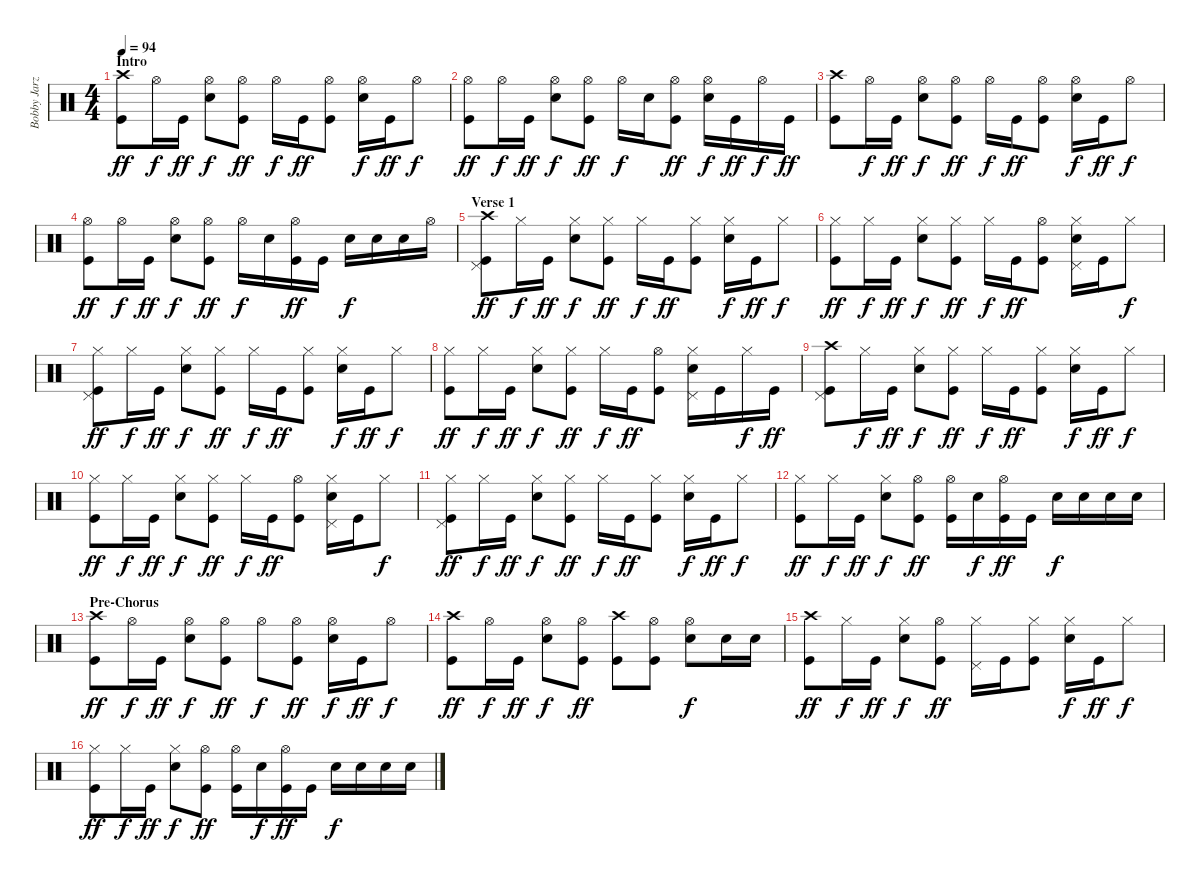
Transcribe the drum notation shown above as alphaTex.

\track ("Bobby Jarzombek" "Bobby Jarz") {instrument percussion}
\staff {score}
\articulation defaults
\ts (4 4)
\section ("" "Intro")
\tempo 94
\clef neutral
\ks c
("Crash high (hit)" "Kick (hit)").8{dy ff} "Hi-Hat (open)".16{dy f} "Kick (hit)".16{dy ff} ("Hi-Hat (open)" "Electric Snare (hit)").8{dy f} ("Hi-Hat (open)" "Kick (hit)").8{dy ff} "Hi-Hat (open)".16{dy f} "Kick (hit)".16{dy ff} ("Hi-Hat (open)" "Kick (hit)").8 ("Hi-Hat (open)" "Electric Snare (hit)").16{dy f} "Kick (hit)".16{dy ff} "Hi-Hat (open)".8{dy f} |
("Hi-Hat (open)" "Kick (hit)").8{dy ff} "Hi-Hat (open)".16{dy f} "Kick (hit)".16{dy ff} ("Hi-Hat (open)" "Electric Snare (hit)").8{dy f} ("Hi-Hat (open)" "Kick (hit)").8{dy ff} "Hi-Hat (open)".16{dy f} "Electric Snare (hit)".16 ("Hi-Hat (open)" "Kick (hit)").8{dy ff} ("Hi-Hat (open)" "Electric Snare (hit)").16{dy f} "Kick (hit)".16{dy ff} "Hi-Hat (open)".16{dy f} "Kick (hit)".16{dy ff} |
("Crash high (hit)" "Kick (hit)").8 "Hi-Hat (open)".16{dy f} "Kick (hit)".16{dy ff} ("Hi-Hat (open)" "Electric Snare (hit)").8{dy f} ("Hi-Hat (open)" "Kick (hit)").8{dy ff} "Hi-Hat (open)".16{dy f} "Kick (hit)".16{dy ff} ("Hi-Hat (open)" "Kick (hit)").8 ("Hi-Hat (open)" "Electric Snare (hit)").16{dy f} "Kick (hit)".16{dy ff} "Hi-Hat (open)".8{dy f} |
("Hi-Hat (open)" "Kick (hit)").8{dy ff} "Hi-Hat (open)".16{dy f} "Kick (hit)".16{dy ff} ("Hi-Hat (open)" "Electric Snare (hit)").8{dy f} ("Hi-Hat (open)" "Kick (hit)").8{dy ff} "Hi-Hat (open)".16{dy f} "Electric Snare (hit)".16 ("Hi-Hat (open)" "Kick (hit)").16{dy ff} "Kick (hit)".16 "Electric Snare (hit)".16{dy f} "Electric Snare (hit)".16 "Electric Snare (hit)".16 "Hi-Hat (open)".16 |
\section ("" "Verse 1")
("Crash high (hit)" "Pedal Hi-Hat (hit)" "Kick (hit)").8{dy ff} "Hi-Hat (closed)".16{dy f} "Kick (hit)".16{dy ff} ("Hi-Hat (closed)" "Electric Snare (hit)").8{dy f} ("Hi-Hat (closed)" "Kick (hit)").8{dy ff} "Hi-Hat (closed)".16{dy f} "Kick (hit)".16{dy ff} ("Hi-Hat (closed)" "Kick (hit)").8 ("Hi-Hat (closed)" "Electric Snare (hit)").16{dy f} "Kick (hit)".16{dy ff} "Hi-Hat (closed)".8{dy f} |
("Hi-Hat (closed)" "Kick (hit)").8{dy ff} "Hi-Hat (closed)".16{dy f} "Kick (hit)".16{dy ff} ("Hi-Hat (closed)" "Electric Snare (hit)").8{dy f} ("Hi-Hat (closed)" "Kick (hit)").8{dy ff} "Hi-Hat (closed)".16{dy f} "Kick (hit)".16{dy ff} ("Hi-Hat (open)" "Kick (hit)").8 ("Hi-Hat (closed)" "Electric Snare (hit)" "Pedal Hi-Hat (hit)").16 "Kick (hit)".16 "Hi-Hat (closed)".8{dy f} |
("Hi-Hat (closed)" "Pedal Hi-Hat (hit)" "Kick (hit)").8{dy ff} "Hi-Hat (closed)".16{dy f} "Kick (hit)".16{dy ff} ("Hi-Hat (closed)" "Electric Snare (hit)").8{dy f} ("Hi-Hat (closed)" "Kick (hit)").8{dy ff} "Hi-Hat (closed)".16{dy f} "Kick (hit)".16{dy ff} ("Hi-Hat (closed)" "Kick (hit)").8 ("Hi-Hat (closed)" "Electric Snare (hit)").16{dy f} "Kick (hit)".16{dy ff} "Hi-Hat (closed)".8{dy f} |
("Hi-Hat (closed)" "Kick (hit)").8{dy ff} "Hi-Hat (closed)".16{dy f} "Kick (hit)".16{dy ff} ("Hi-Hat (closed)" "Electric Snare (hit)").8{dy f} ("Hi-Hat (closed)" "Kick (hit)").8{dy ff} "Hi-Hat (closed)".16{dy f} "Kick (hit)".16{dy ff} ("Hi-Hat (open)" "Kick (hit)").8 ("Hi-Hat (closed)" "Electric Snare (hit)" "Pedal Hi-Hat (hit)").16 "Kick (hit)".16 "Hi-Hat (closed)".16{dy f} "Kick (hit)".16{dy ff} |
("Crash high (hit)" "Pedal Hi-Hat (hit)" "Kick (hit)").8 "Hi-Hat (closed)".16{dy f} "Kick (hit)".16{dy ff} ("Hi-Hat (closed)" "Electric Snare (hit)").8{dy f} ("Hi-Hat (closed)" "Kick (hit)").8{dy ff} "Hi-Hat (closed)".16{dy f} "Kick (hit)".16{dy ff} ("Hi-Hat (closed)" "Kick (hit)").8 ("Hi-Hat (closed)" "Electric Snare (hit)").16{dy f} "Kick (hit)".16{dy ff} "Hi-Hat (closed)".8{dy f} |
("Hi-Hat (closed)" "Kick (hit)").8{dy ff} "Hi-Hat (closed)".16{dy f} "Kick (hit)".16{dy ff} ("Hi-Hat (closed)" "Electric Snare (hit)").8{dy f} ("Hi-Hat (closed)" "Kick (hit)").8{dy ff} "Hi-Hat (closed)".16{dy f} "Kick (hit)".16{dy ff} ("Hi-Hat (open)" "Kick (hit)").8 ("Hi-Hat (closed)" "Electric Snare (hit)" "Pedal Hi-Hat (hit)").16 "Kick (hit)".16 "Hi-Hat (closed)".8{dy f} |
("Hi-Hat (closed)" "Pedal Hi-Hat (hit)" "Kick (hit)").8{dy ff} "Hi-Hat (closed)".16{dy f} "Kick (hit)".16{dy ff} ("Hi-Hat (closed)" "Electric Snare (hit)").8{dy f} ("Hi-Hat (closed)" "Kick (hit)").8{dy ff} "Hi-Hat (closed)".16{dy f} "Kick (hit)".16{dy ff} ("Hi-Hat (closed)" "Kick (hit)").8 ("Hi-Hat (closed)" "Electric Snare (hit)").16{dy f} "Kick (hit)".16{dy ff} "Hi-Hat (closed)".8{dy f} |
("Hi-Hat (closed)" "Kick (hit)").8{dy ff} "Hi-Hat (closed)".16{dy f} "Kick (hit)".16{dy ff} ("Hi-Hat (closed)" "Electric Snare (hit)").8{dy f} ("Hi-Hat (open)" "Kick (hit)").8{dy ff} ("Hi-Hat (open)" "Kick (hit)").16 "Electric Snare (hit)".16{dy f} ("Hi-Hat (open)" "Kick (hit)").16{dy ff} "Kick (hit)".16 "Electric Snare (hit)".16{dy f} "Electric Snare (hit)".16 "Electric Snare (hit)".16 "Electric Snare (hit)".16 |
\section ("" "Pre-Chorus")
("Crash high (hit)" "Kick (hit)").8{dy ff} "Hi-Hat (open)".16{dy f} "Kick (hit)".16{dy ff} ("Hi-Hat (open)" "Electric Snare (hit)").8{dy f} ("Hi-Hat (open)" "Kick (hit)").8{dy ff} "Hi-Hat (open)".8{dy f} ("Hi-Hat (open)" "Kick (hit)").8{dy ff} ("Hi-Hat (open)" "Electric Snare (hit)").16{dy f} "Kick (hit)".16{dy ff} "Hi-Hat (open)".8{dy f} |
("Crash high (hit)" "Kick (hit)").8{dy ff} "Hi-Hat (open)".16{dy f} "Kick (hit)".16{dy ff} ("Hi-Hat (open)" "Electric Snare (hit)").8{dy f} ("Hi-Hat (open)" "Kick (hit)").8{dy ff} ("Crash high (hit)" "Kick (hit)").8 ("Hi-Hat (open)" "Kick (hit)").8 ("Hi-Hat (open)" "Electric Snare (hit)").8{dy f} "Electric Snare (hit)".16 "Electric Snare (hit)".16 |
("Crash high (hit)" "Kick (hit)").8{dy ff} "Hi-Hat (closed)".16{dy f} "Kick (hit)".16{dy ff} ("Hi-Hat (closed)" "Electric Snare (hit)").8{dy f} ("Hi-Hat (open)" "Kick (hit)").8{dy ff} ("Hi-Hat (closed)" "Pedal Hi-Hat (hit)").16 "Kick (hit)".16 ("Hi-Hat (closed)" "Kick (hit)").8 ("Hi-Hat (closed)" "Electric Snare (hit)").16{dy f} "Kick (hit)".16{dy ff} "Hi-Hat (closed)".8{dy f} |
("Hi-Hat (closed)" "Kick (hit)").8{dy ff} "Hi-Hat (closed)".16{dy f} "Kick (hit)".16{dy ff} ("Hi-Hat (closed)" "Electric Snare (hit)").8{dy f} ("Hi-Hat (open)" "Kick (hit)").8{dy ff} ("Hi-Hat (open)" "Kick (hit)").16 "Electric Snare (hit)".16{dy f} ("Hi-Hat (open)" "Kick (hit)").16{dy ff} "Kick (hit)".16 "Electric Snare (hit)".16{dy f} "Electric Snare (hit)".16 "Electric Snare (hit)".16 "Electric Snare (hit)".16
